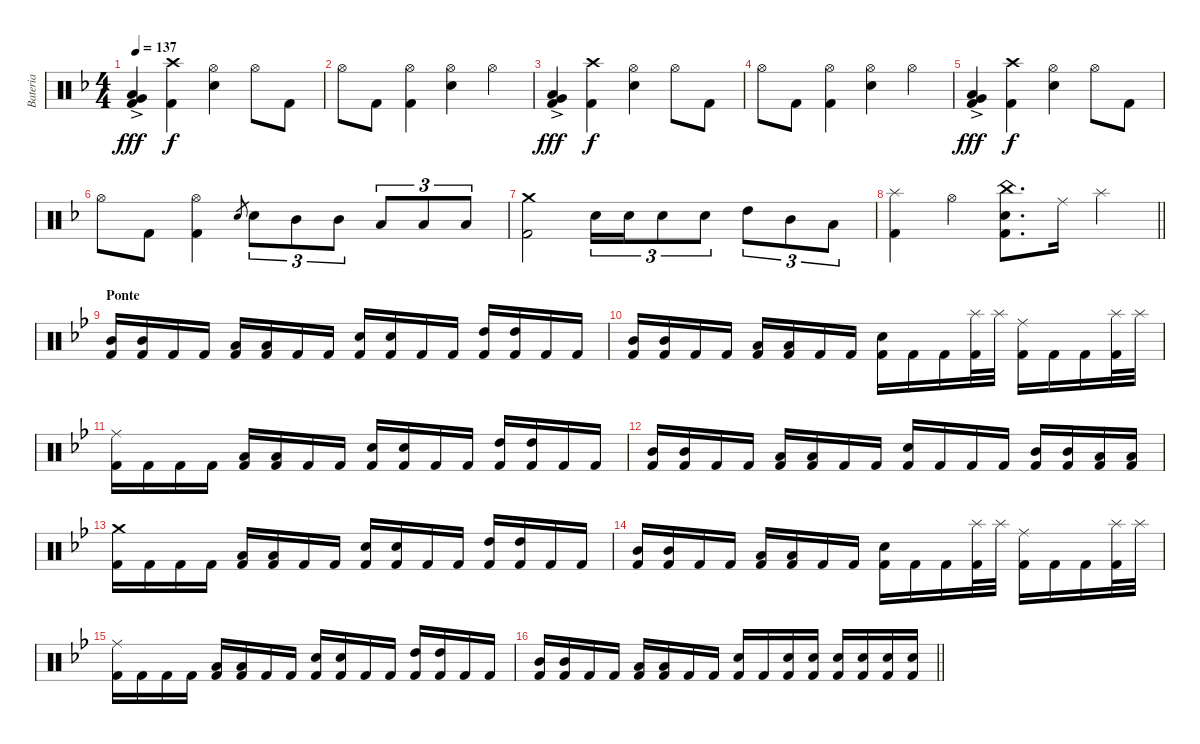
\track ("Bateria" "Bateria") {instrument percussion}
\staff {score}
\articulation defaults
\ts (4 4)
\tempo 137
\clef neutral
\ks dminor
("Very Low Tom (hit)"{ac} "Low Tom (hit)"{ac} "Kick (hit) 2").4{dy fff} ("Crash high (hit)" "Kick (hit) 2").4{dy f} ("Hi-Hat (open)" "Electric Snare (hit)").4 "Hi-Hat (open)".8 "Kick (hit) 2".8 |
"Hi-Hat (open)".8 "Kick (hit) 2".8 ("Hi-Hat (open)" "Kick (hit) 2").4 ("Hi-Hat (open)" "Electric Snare (hit)").4 "Hi-Hat (open)".4 |
("Very Low Tom (hit)"{ac} "Low Tom (hit)"{ac} "Kick (hit) 2").4{dy fff} ("Crash high (hit)" "Kick (hit) 2").4{dy f} ("Hi-Hat (open)" "Electric Snare (hit)").4 "Hi-Hat (open)".8 "Kick (hit) 2".8 |
"Hi-Hat (open)".8 "Kick (hit) 2".8 ("Hi-Hat (open)" "Kick (hit) 2").4 ("Hi-Hat (open)" "Electric Snare (hit)").4 "Hi-Hat (open)".4 |
("Very Low Tom (hit)"{ac} "Low Tom (hit)"{ac} "Kick (hit) 2").4{dy fff} ("Crash high (hit)" "Kick (hit) 2").4{dy f} ("Hi-Hat (open)" "Electric Snare (hit)").4 "Hi-Hat (open)".8 "Kick (hit) 2".8 |
"Hi-Hat (open)".8 "Kick (hit) 2".8 ("Hi-Hat (open)" "Kick (hit) 2").4 "Electric Snare (hit)".8{gr} "Electric Snare (hit)".8{tu (3 2)} "Mid Tom (hit)".8{tu (3 2)} "Mid Tom (hit)".8{tu (3 2)} "Low Tom (hit)".8{tu (3 2)} "Low Tom (hit)".8{tu (3 2)} "Low Tom (hit)".8{tu (3 2)} |
("Crash medium (hit)" "Kick (hit) 2").2 "Electric Snare (hit)".16{tu (3 2)} "Electric Snare (hit)".16{tu (3 2)} "Electric Snare (hit)".8{tu (3 2)} "Electric Snare (hit)".8{tu (3 2)} "High Tom (hit)".8{tu (3 2)} "Mid Tom (hit)".8{tu (3 2)} "Low Tom (hit)".8{tu (3 2)} |
\barLineRight lightlight
("Splash (hit)" "Kick (hit) 2").4 "Hi-Hat (open)".4 ("China (hit)" "Electric Snare (hit)" "Kick (hit) 2").8{d} "Ride (middle)".16 "Splash (hit)".4 |
\section ("" "Ponte")
\ks gminor
("Mid Tom (hit)" "Kick (hit) 2").16 ("Mid Tom (hit)" "Kick (hit) 2").16 "Kick (hit) 2".16 "Kick (hit) 2".16 ("Low Tom (hit)" "Kick (hit) 2").16 ("Low Tom (hit)" "Kick (hit) 2").16 "Kick (hit) 2".16 "Kick (hit) 2".16 ("Electric Snare (hit)" "Kick (hit) 2").16 ("Electric Snare (hit)" "Kick (hit) 2").16 "Kick (hit) 2".16 "Kick (hit) 2".16 ("High Tom (hit)" "Kick (hit) 2").16 ("High Tom (hit)" "Kick (hit) 2").16 "Kick (hit) 2".16 "Kick (hit) 2".16 |
("Mid Tom (hit)" "Kick (hit) 2").16 ("Mid Tom (hit)" "Kick (hit) 2").16 "Kick (hit) 2".16 "Kick (hit) 2".16 ("Low Tom (hit)" "Kick (hit) 2").16 ("Low Tom (hit)" "Kick (hit) 2").16 "Kick (hit) 2".16 "Kick (hit) 2".16 ("Electric Snare (hit)" "Kick (hit) 2").16 "Kick (hit) 2".16 "Kick (hit) 2".16 ("Splash (hit)" "Kick (hit) 2").32 "Splash (hit)".32 ("Ride (middle)" "Kick (hit) 2").16 "Kick (hit) 2".16 "Kick (hit) 2".16 ("Splash (hit)" "Kick (hit) 2").32 "Splash (hit)".32 |
("Ride (middle)" "Kick (hit) 2").16 "Kick (hit) 2".16 "Kick (hit) 2".16 "Kick (hit) 2".16 ("Low Tom (hit)" "Kick (hit) 2").16 ("Low Tom (hit)" "Kick (hit) 2").16 "Kick (hit) 2".16 "Kick (hit) 2".16 ("Electric Snare (hit)" "Kick (hit) 2").16 ("Electric Snare (hit)" "Kick (hit) 2").16 "Kick (hit) 2".16 "Kick (hit) 2".16 ("High Tom (hit)" "Kick (hit) 2").16 ("High Tom (hit)" "Kick (hit) 2").16 "Kick (hit) 2".16 "Kick (hit) 2".16 |
("Mid Tom (hit)" "Kick (hit) 2").16 ("Mid Tom (hit)" "Kick (hit) 2").16 "Kick (hit) 2".16 "Kick (hit) 2".16 ("Low Tom (hit)" "Kick (hit) 2").16 ("Low Tom (hit)" "Kick (hit) 2").16 "Kick (hit) 2".16 "Kick (hit) 2".16 ("Electric Snare (hit)" "Kick (hit) 2").16 "Kick (hit) 2".16 "Kick (hit) 2".16 "Kick (hit) 2".16 ("Mid Tom (hit)" "Kick (hit) 2").16 ("Mid Tom (hit)" "Kick (hit) 2").16 ("Low Tom (hit)" "Kick (hit) 2").16 ("Low Tom (hit)" "Kick (hit) 2").16 |
("Crash medium (hit)" "Kick (hit) 2").16 "Kick (hit) 2".16 "Kick (hit) 2".16 "Kick (hit) 2".16 ("Low Tom (hit)" "Kick (hit) 2").16 ("Low Tom (hit)" "Kick (hit) 2").16 "Kick (hit) 2".16 "Kick (hit) 2".16 ("Electric Snare (hit)" "Kick (hit) 2").16 ("Electric Snare (hit)" "Kick (hit) 2").16 "Kick (hit) 2".16 "Kick (hit) 2".16 ("High Tom (hit)" "Kick (hit) 2").16 ("High Tom (hit)" "Kick (hit) 2").16 "Kick (hit) 2".16 "Kick (hit) 2".16 |
("Mid Tom (hit)" "Kick (hit) 2").16 ("Mid Tom (hit)" "Kick (hit) 2").16 "Kick (hit) 2".16 "Kick (hit) 2".16 ("Low Tom (hit)" "Kick (hit) 2").16 ("Low Tom (hit)" "Kick (hit) 2").16 "Kick (hit) 2".16 "Kick (hit) 2".16 ("Electric Snare (hit)" "Kick (hit) 2").16 "Kick (hit) 2".16 "Kick (hit) 2".16 ("Splash (hit)" "Kick (hit) 2").32 "Splash (hit)".32 ("Ride (middle)" "Kick (hit) 2").16 "Kick (hit) 2".16 "Kick (hit) 2".16 ("Splash (hit)" "Kick (hit) 2").32 "Splash (hit)".32 |
("Ride (middle)" "Kick (hit) 2").16 "Kick (hit) 2".16 "Kick (hit) 2".16 "Kick (hit) 2".16 ("Low Tom (hit)" "Kick (hit) 2").16 ("Low Tom (hit)" "Kick (hit) 2").16 "Kick (hit) 2".16 "Kick (hit) 2".16 ("Electric Snare (hit)" "Kick (hit) 2").16 ("Electric Snare (hit)" "Kick (hit) 2").16 "Kick (hit) 2".16 "Kick (hit) 2".16 ("High Tom (hit)" "Kick (hit) 2").16 ("High Tom (hit)" "Kick (hit) 2").16 "Kick (hit) 2".16 "Kick (hit) 2".16 |
\barLineRight lightlight
("Mid Tom (hit)" "Kick (hit) 2").16 ("Mid Tom (hit)" "Kick (hit) 2").16 "Kick (hit) 2".16 "Kick (hit) 2".16 ("Low Tom (hit)" "Kick (hit) 2").16 ("Low Tom (hit)" "Kick (hit) 2").16 "Kick (hit) 2".16 "Kick (hit) 2".16 ("Electric Snare (hit)" "Kick (hit) 2").16 "Kick (hit) 2".16 ("Electric Snare (hit)" "Kick (hit) 2").16 ("Electric Snare (hit)" "Kick (hit) 2").16 ("Electric Snare (hit)" "Kick (hit) 2").16 ("Electric Snare (hit)" "Kick (hit) 2").16 ("Electric Snare (hit)" "Kick (hit) 2").16 ("Electric Snare (hit)" "Kick (hit) 2").16
